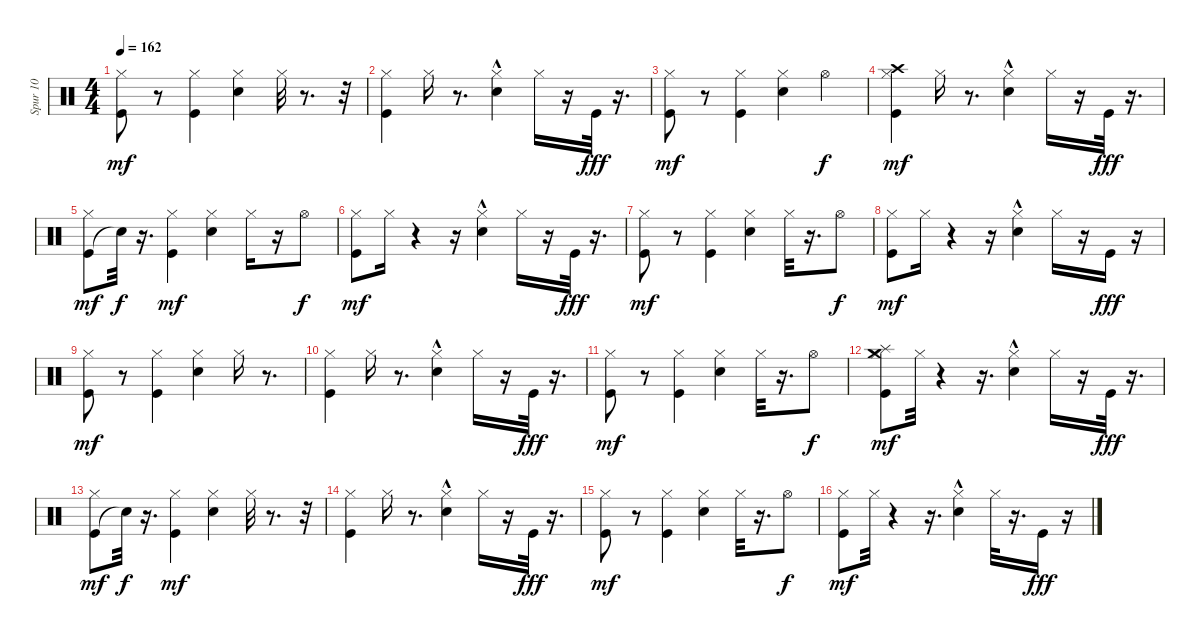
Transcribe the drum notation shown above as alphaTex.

\track ("Spur 10" "Spur 10") {instrument percussion}
\staff {score}
\articulation defaults
\ts (4 4)
\tempo 162
\clef neutral
\ks c
("Kick (hit)" "Hi-Hat (closed)").8{dy mf} r.8 ("Kick (hit)" "Hi-Hat (closed)").4 ("Snare (hit) 2" "Hi-Hat (closed)").4 "Hi-Hat (closed)".32 r.8{d} r.32 |
("Kick (hit)" "Hi-Hat (closed)").4 "Hi-Hat (closed)".16 r.8{d} ("Snare (hit) 2"{hac} "Hi-Hat (closed)").4 "Hi-Hat (closed)".16 r.16 "Kick (hit)".32{dy fff} r.16{d} |
("Kick (hit)" "Hi-Hat (closed)").8{dy mf} r.8 ("Kick (hit)" "Hi-Hat (closed)").4 ("Snare (hit) 2" "Hi-Hat (closed)").4 "Hi-Hat (open)".4{dy f} |
("Crash high (hit)" "Kick (hit)" "Hi-Hat (closed)").4{dy mf} "Hi-Hat (closed)".16 r.8{d} ("Snare (hit) 2"{hac} "Hi-Hat (closed)").4 "Hi-Hat (closed)".16 r.16 "Kick (hit)".32{dy fff} r.16{d} |
("Kick (hit)" "Hi-Hat (closed)").8{dy mf} "Snare (hit)"{t}.32{dy f} r.16{d} ("Kick (hit)" "Hi-Hat (closed)").4{dy mf} ("Snare (hit) 2" "Hi-Hat (closed)").4 "Hi-Hat (closed)".16 r.16 "Hi-Hat (open)".8{dy f} |
("Kick (hit)" "Hi-Hat (closed)").8{dy mf} "Hi-Hat (closed)".16 r.4 r.16 ("Snare (hit) 2"{hac} "Hi-Hat (closed)").4 "Hi-Hat (closed)".16 r.16 "Kick (hit)".32{dy fff} r.16{d} |
("Kick (hit)" "Hi-Hat (closed)").8{dy mf} r.8 ("Kick (hit)" "Hi-Hat (closed)").4 ("Snare (hit) 2" "Hi-Hat (closed)").4 "Hi-Hat (closed)".32 r.16{d} "Hi-Hat (open)".8{dy f} |
("Kick (hit)" "Hi-Hat (closed)").8{dy mf} "Hi-Hat (closed)".16 r.4 r.16 ("Snare (hit) 2"{hac} "Hi-Hat (closed)").4 "Hi-Hat (closed)".16 r.16 "Kick (hit)".16{dy fff} r.16 |
("Kick (hit)" "Hi-Hat (closed)").8{dy mf} r.8 ("Kick (hit)" "Hi-Hat (closed)").4 ("Snare (hit) 2" "Hi-Hat (closed)").4 "Hi-Hat (closed)".16 r.8{d} |
("Kick (hit)" "Hi-Hat (closed)").4 "Hi-Hat (closed)".16 r.8{d} ("Snare (hit) 2"{hac} "Hi-Hat (closed)").4 "Hi-Hat (closed)".16 r.16 "Kick (hit)".32{dy fff} r.16{d} |
("Kick (hit)" "Hi-Hat (closed)").8{dy mf} r.8 ("Kick (hit)" "Hi-Hat (closed)").4 ("Snare (hit) 2" "Hi-Hat (closed)").4 "Hi-Hat (closed)".32 r.16{d} "Hi-Hat (open)".8{dy f} |
("Crash medium (hit)" "Splash (hit)" "Kick (hit)" "Hi-Hat (closed)").8{dy mf} "Hi-Hat (closed)".32 r.4 r.16{d} ("Snare (hit) 2"{hac} "Hi-Hat (closed)").4 "Hi-Hat (closed)".16 r.16 "Kick (hit)".32{dy fff} r.16{d} |
("Kick (hit)" "Hi-Hat (closed)").8{dy mf} "Snare (hit)"{t}.32{dy f} r.16{d} ("Kick (hit)" "Hi-Hat (closed)").4{dy mf} ("Snare (hit) 2" "Hi-Hat (closed)").4 "Hi-Hat (closed)".32 r.8{d} r.32 |
("Kick (hit)" "Hi-Hat (closed)").4 "Hi-Hat (closed)".16 r.8{d} ("Snare (hit) 2"{hac} "Hi-Hat (closed)").4 "Hi-Hat (closed)".16 r.16 "Kick (hit)".32{dy fff} r.16{d} |
("Kick (hit)" "Hi-Hat (closed)").8{dy mf} r.8 ("Kick (hit)" "Hi-Hat (closed)").4 ("Snare (hit) 2" "Hi-Hat (closed)").4 "Hi-Hat (closed)".32 r.16{d} "Hi-Hat (open)".8{dy f} |
("Kick (hit)" "Hi-Hat (closed)").8{dy mf} "Hi-Hat (closed)".32 r.4 r.16{d} ("Snare (hit) 2"{hac} "Hi-Hat (closed)").4 "Hi-Hat (closed)".32 r.16{d} "Kick (hit)".16{dy fff} r.16
